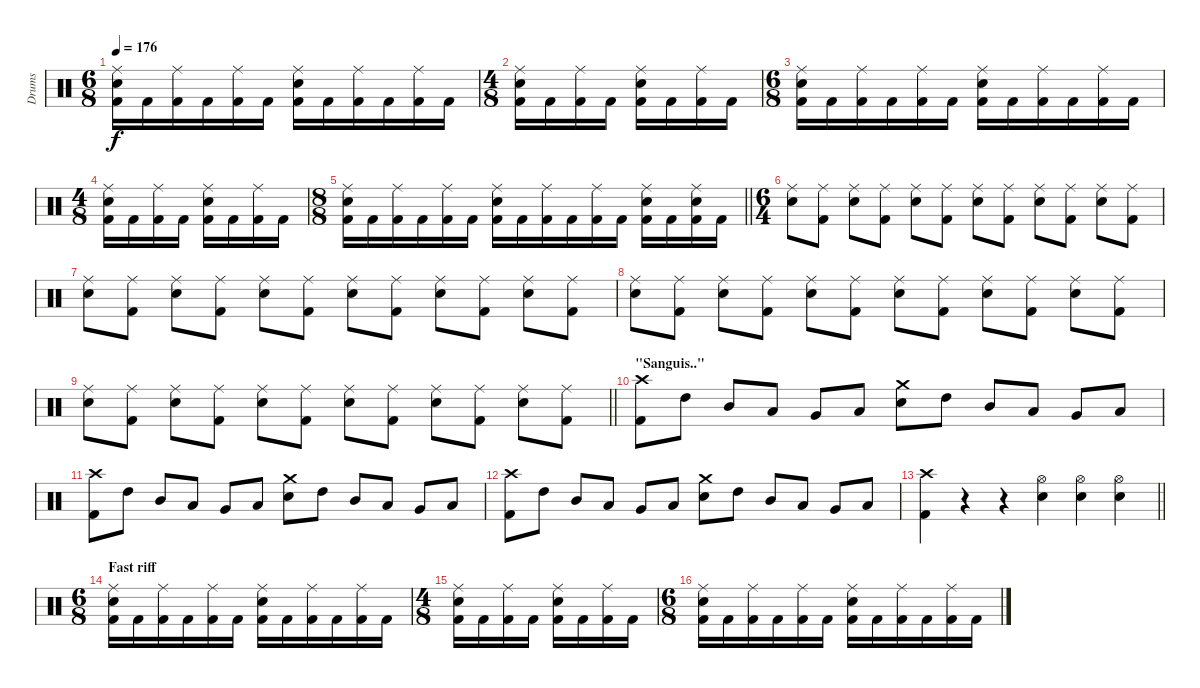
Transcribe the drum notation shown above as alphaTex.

\track ("Drums" "Drums") {instrument percussion}
\staff {score}
\articulation defaults
\ts (6 8)
\tempo 176
\clef neutral
\ks c
("Ride (middle)" "Snare (hit) 2" "Kick (hit) 2").16{dy f} "Kick (hit) 2".16 ("Ride (middle)" "Kick (hit) 2").16 "Kick (hit) 2".16 ("Ride (middle)" "Kick (hit) 2").16 "Kick (hit) 2".16 ("Ride (middle)" "Snare (hit) 2" "Kick (hit) 2").16 "Kick (hit) 2".16 ("Ride (middle)" "Kick (hit) 2").16 "Kick (hit) 2".16 ("Ride (middle)" "Kick (hit) 2").16 "Kick (hit) 2".16 |
\ts (4 8)
("Ride (middle)" "Snare (hit) 2" "Kick (hit) 2").16 "Kick (hit) 2".16 ("Ride (middle)" "Kick (hit) 2").16 "Kick (hit) 2".16 ("Ride (middle)" "Snare (hit) 2" "Kick (hit) 2").16 "Kick (hit) 2".16 ("Ride (middle)" "Kick (hit) 2").16 "Kick (hit) 2".16 |
\ts (6 8)
("Ride (middle)" "Snare (hit) 2" "Kick (hit) 2").16 "Kick (hit) 2".16 ("Ride (middle)" "Kick (hit) 2").16 "Kick (hit) 2".16 ("Ride (middle)" "Kick (hit) 2").16 "Kick (hit) 2".16 ("Ride (middle)" "Snare (hit) 2" "Kick (hit) 2").16 "Kick (hit) 2".16 ("Ride (middle)" "Kick (hit) 2").16 "Kick (hit) 2".16 ("Ride (middle)" "Kick (hit) 2").16 "Kick (hit) 2".16 |
\ts (4 8)
("Ride (middle)" "Snare (hit) 2" "Kick (hit) 2").16 "Kick (hit) 2".16 ("Ride (middle)" "Kick (hit) 2").16 "Kick (hit) 2".16 ("Ride (middle)" "Snare (hit) 2" "Kick (hit) 2").16 "Kick (hit) 2".16 ("Ride (middle)" "Kick (hit) 2").16 "Kick (hit) 2".16 |
\ts (8 8)
\barLineRight lightlight
("Ride (middle)" "Snare (hit) 2" "Kick (hit) 2").16 "Kick (hit) 2".16 ("Ride (middle)" "Kick (hit) 2").16 "Kick (hit) 2".16 ("Ride (middle)" "Kick (hit) 2").16 "Kick (hit) 2".16 ("Ride (middle)" "Snare (hit) 2" "Kick (hit) 2").16 "Kick (hit) 2".16 ("Ride (middle)" "Kick (hit) 2").16 "Kick (hit) 2".16 ("Ride (middle)" "Kick (hit) 2").16 "Kick (hit) 2".16 ("Ride (middle)" "Snare (hit) 2" "Kick (hit) 2").16 "Kick (hit) 2".16 ("Ride (middle)" "Snare (hit) 2" "Kick (hit) 2").16 "Kick (hit) 2".16 |
\ts (6 4)
\section ("" "")
("Ride (middle)" "Snare (hit) 2").8 ("Ride (middle)" "Kick (hit) 2").8 ("Ride (middle)" "Snare (hit) 2").8 ("Ride (middle)" "Kick (hit) 2").8 ("Ride (middle)" "Snare (hit) 2").8 ("Ride (middle)" "Kick (hit) 2").8 ("Ride (middle)" "Snare (hit) 2").8 ("Ride (middle)" "Kick (hit) 2").8 ("Ride (middle)" "Snare (hit) 2").8 ("Ride (middle)" "Kick (hit) 2").8 ("Ride (middle)" "Snare (hit) 2").8 ("Ride (middle)" "Kick (hit) 2").8 |
("Ride (middle)" "Snare (hit) 2").8 ("Ride (middle)" "Kick (hit) 2").8 ("Ride (middle)" "Snare (hit) 2").8 ("Ride (middle)" "Kick (hit) 2").8 ("Ride (middle)" "Snare (hit) 2").8 ("Ride (middle)" "Kick (hit) 2").8 ("Ride (middle)" "Snare (hit) 2").8 ("Ride (middle)" "Kick (hit) 2").8 ("Ride (middle)" "Snare (hit) 2").8 ("Ride (middle)" "Kick (hit) 2").8 ("Ride (middle)" "Snare (hit) 2").8 ("Ride (middle)" "Kick (hit) 2").8 |
("Ride (middle)" "Snare (hit) 2").8 ("Ride (middle)" "Kick (hit) 2").8 ("Ride (middle)" "Snare (hit) 2").8 ("Ride (middle)" "Kick (hit) 2").8 ("Ride (middle)" "Snare (hit) 2").8 ("Ride (middle)" "Kick (hit) 2").8 ("Ride (middle)" "Snare (hit) 2").8 ("Ride (middle)" "Kick (hit) 2").8 ("Ride (middle)" "Snare (hit) 2").8 ("Ride (middle)" "Kick (hit) 2").8 ("Ride (middle)" "Snare (hit) 2").8 ("Ride (middle)" "Kick (hit) 2").8 |
\barLineRight lightlight
("Ride (middle)" "Snare (hit) 2").8 ("Ride (middle)" "Kick (hit) 2").8 ("Ride (middle)" "Snare (hit) 2").8 ("Ride (middle)" "Kick (hit) 2").8 ("Ride (middle)" "Snare (hit) 2").8 ("Ride (middle)" "Kick (hit) 2").8 ("Ride (middle)" "Snare (hit) 2").8 ("Ride (middle)" "Kick (hit) 2").8 ("Ride (middle)" "Snare (hit) 2").8 ("Ride (middle)" "Kick (hit) 2").8 ("Ride (middle)" "Snare (hit) 2").8 ("Ride (middle)" "Kick (hit) 2").8 |
\section ("" "\"Sanguis..\"")
("Crash high (hit)" "Kick (hit) 2").8 "High Tom (hit)".8 "Mid Tom (hit)".8 "Low Tom (hit)".8 "Very Low Tom (hit)".8 "Low Floor Tom (hit)".8 ("Crash medium (hit)" "Snare (hit) 2").8 "High Tom (hit)".8 "Mid Tom (hit)".8 "Low Tom (hit)".8 "Very Low Tom (hit)".8 "Low Floor Tom (hit)".8 |
("Crash high (hit)" "Kick (hit) 2").8 "High Tom (hit)".8 "Mid Tom (hit)".8 "Low Tom (hit)".8 "Very Low Tom (hit)".8 "Low Floor Tom (hit)".8 ("Crash medium (hit)" "Snare (hit) 2").8 "High Tom (hit)".8 "Mid Tom (hit)".8 "Low Tom (hit)".8 "Very Low Tom (hit)".8 "Low Floor Tom (hit)".8 |
("Crash high (hit)" "Kick (hit) 2").8 "High Tom (hit)".8 "Mid Tom (hit)".8 "Low Tom (hit)".8 "Very Low Tom (hit)".8 "Low Floor Tom (hit)".8 ("Crash medium (hit)" "Snare (hit) 2").8 "High Tom (hit)".8 "Mid Tom (hit)".8 "Low Tom (hit)".8 "Very Low Tom (hit)".8 "Low Floor Tom (hit)".8 |
\barLineRight lightlight
("Crash high (hit)" "Kick (hit) 2").4 r.4 r.4 ("Hi-Hat (open)" "Snare (hit) 2").4 ("Hi-Hat (open)" "Snare (hit) 2").4 ("Hi-Hat (open)" "Snare (hit) 2").4 |
\ts (6 8)
\section ("" "Fast riff")
("Ride (middle)" "Snare (hit) 2" "Kick (hit) 2").16 "Kick (hit) 2".16 ("Ride (middle)" "Kick (hit) 2").16 "Kick (hit) 2".16 ("Ride (middle)" "Kick (hit) 2").16 "Kick (hit) 2".16 ("Ride (middle)" "Snare (hit) 2" "Kick (hit) 2").16 "Kick (hit) 2".16 ("Ride (middle)" "Kick (hit) 2").16 "Kick (hit) 2".16 ("Ride (middle)" "Kick (hit) 2").16 "Kick (hit) 2".16 |
\ts (4 8)
("Ride (middle)" "Snare (hit) 2" "Kick (hit) 2").16 "Kick (hit) 2".16 ("Ride (middle)" "Kick (hit) 2").16 "Kick (hit) 2".16 ("Ride (middle)" "Snare (hit) 2" "Kick (hit) 2").16 "Kick (hit) 2".16 ("Ride (middle)" "Kick (hit) 2").16 "Kick (hit) 2".16 |
\ts (6 8)
("Ride (middle)" "Snare (hit) 2" "Kick (hit) 2").16 "Kick (hit) 2".16 ("Ride (middle)" "Kick (hit) 2").16 "Kick (hit) 2".16 ("Ride (middle)" "Kick (hit) 2").16 "Kick (hit) 2".16 ("Ride (middle)" "Snare (hit) 2" "Kick (hit) 2").16 "Kick (hit) 2".16 ("Ride (middle)" "Kick (hit) 2").16 "Kick (hit) 2".16 ("Ride (middle)" "Kick (hit) 2").16 "Kick (hit) 2".16
